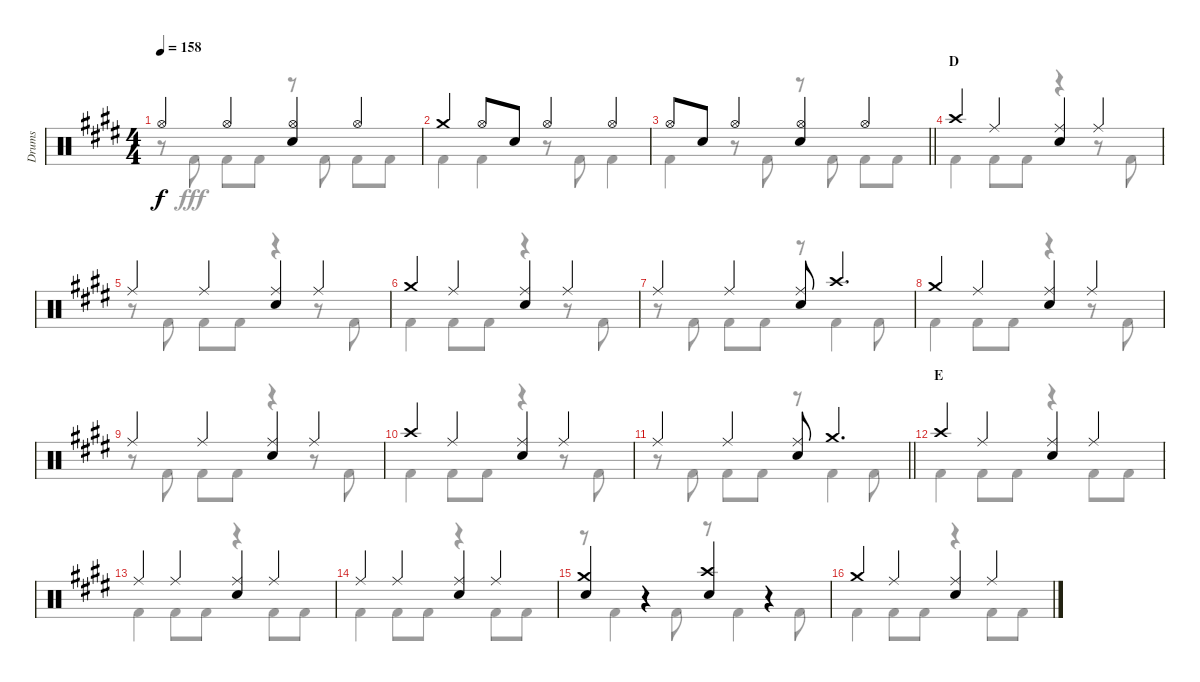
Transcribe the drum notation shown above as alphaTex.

\track ("Drums" "Drums") {instrument percussion}
\staff {score}
\articulation defaults
\voice
\ts (4 4)
\tempo 158
\clef neutral
\ks e "Hi-Hat (open)".4{dy f} "Hi-Hat (open)".4
("Hi-Hat (open)" "Snare (hit) 2").4 "Hi-Hat (open)".4 |
"Crash medium (hit)".4 "Hi-Hat (open)".8 "Snare (hit) 2".8 "Hi-Hat (open)".4 "Hi-Hat (open)".4 |
\barLineRight lightlight "Hi-Hat (open)".8 "Snare (hit) 2".8 "Hi-Hat (open)".4
("Hi-Hat (open)" "Snare (hit) 2").4 "Hi-Hat (open)".4 |
\section ("" "D")
"Crash high (hit)".4 "Ride (middle)".4 ("Ride (middle)" "Snare (hit) 2").4 "Ride (middle)".4 |
"Ride (middle)".4 "Ride (middle)".4 ("Ride (middle)" "Snare (hit) 2").4 "Ride (middle)".4 |
"Crash medium (hit)".4 "Ride (middle)".4 ("Ride (middle)" "Snare (hit) 2").4 "Ride (middle)".4 |
"Ride (middle)".4 "Ride (middle)".4 ("Ride (middle)" "Snare (hit) 2").8 "Crash high (hit)".4{d} |
"Crash medium (hit)".4 "Ride (middle)".4 ("Ride (middle)" "Snare (hit) 2").4 "Ride (middle)".4 |
"Ride (middle)".4 "Ride (middle)".4 ("Ride (middle)" "Snare (hit) 2").4 "Ride (middle)".4 |
"Crash high (hit)".4 "Ride (middle)".4 ("Ride (middle)" "Snare (hit) 2").4 "Ride (middle)".4 |
\barLineRight lightlight "Ride (middle)".4 "Ride (middle)".4
("Ride (middle)" "Snare (hit) 2").8 "Crash medium (hit)".4{d} |
\section ("" "E")
"Crash high (hit)".4 "Ride (middle)".4 ("Ride (middle)" "Snare (hit) 2").4 "Ride (middle)".4 |
"Ride (middle)".4 "Ride (middle)".4 ("Ride (middle)" "Snare (hit) 2").4 "Ride (middle)".4 |
"Ride (middle)".4 "Ride (middle)".4 ("Ride (middle)" "Snare (hit) 2").4 "Ride (middle)".4 |
("Crash medium (hit)" "Snare (hit) 2").4 r.4 ("Crash high (hit)" "Snare (hit) 2").4 r.4 |
"Crash medium (hit)".4 "Ride (middle)".4 ("Ride (middle)" "Snare (hit) 2").4 "Ride (middle)".4
\voice
\clef neutral
\ottava regular
\simile none
\ks e
r.8{dy fff} "Kick (hit) 2".8 "Kick (hit) 2".8 "Kick (hit) 2".8 r.8 "Kick (hit) 2".8 "Kick (hit) 2".8 "Kick (hit) 2".8 |
"Kick (hit) 2".4 "Kick (hit) 2".4 r.8 "Kick (hit) 2".8 "Kick (hit) 2".4 |
\barLineRight lightlight "Kick (hit) 2".4
r.8 "Kick (hit) 2".8 r.8 "Kick (hit) 2".8 "Kick (hit) 2".8 "Kick (hit) 2".8 |
"Kick (hit) 2".4 "Kick (hit) 2".8 "Kick (hit) 2".8 r.4 r.8 "Kick (hit) 2".8 |
r.8 "Kick (hit) 2".8 "Kick (hit) 2".8 "Kick (hit) 2".8 r.4 r.8 "Kick (hit) 2".8 |
"Kick (hit) 2".4 "Kick (hit) 2".8 "Kick (hit) 2".8 r.4 r.8 "Kick (hit) 2".8 |
r.8 "Kick (hit) 2".8 "Kick (hit) 2".8 "Kick (hit) 2".8 r.8 "Kick (hit) 2".4 "Kick (hit) 2".8 |
"Kick (hit) 2".4 "Kick (hit) 2".8 "Kick (hit) 2".8 r.4 r.8 "Kick (hit) 2".8 |
r.8 "Kick (hit) 2".8 "Kick (hit) 2".8 "Kick (hit) 2".8 r.4 r.8 "Kick (hit) 2".8 |
"Kick (hit) 2".4 "Kick (hit) 2".8 "Kick (hit) 2".8 r.4 r.8 "Kick (hit) 2".8 |
\barLineRight lightlight
r.8 "Kick (hit) 2".8 "Kick (hit) 2".8 "Kick (hit) 2".8 r.8 "Kick (hit) 2".4 "Kick (hit) 2".8 |
"Kick (hit) 2".4 "Kick (hit) 2".8 "Kick (hit) 2".8 r.4 "Kick (hit) 2".8 "Kick (hit) 2".8 |
"Kick (hit) 2".4 "Kick (hit) 2".8 "Kick (hit) 2".8 r.4 "Kick (hit) 2".8 "Kick (hit) 2".8 |
"Kick (hit) 2".4 "Kick (hit) 2".8 "Kick (hit) 2".8 r.4 "Kick (hit) 2".8 "Kick (hit) 2".8 |
r.8 "Kick (hit) 2".4 "Kick (hit) 2".8 r.8 "Kick (hit) 2".4 "Kick (hit) 2".8 |
"Kick (hit) 2".4 "Kick (hit) 2".8 "Kick (hit) 2".8 r.4 "Kick (hit) 2".8 "Kick (hit) 2".8
